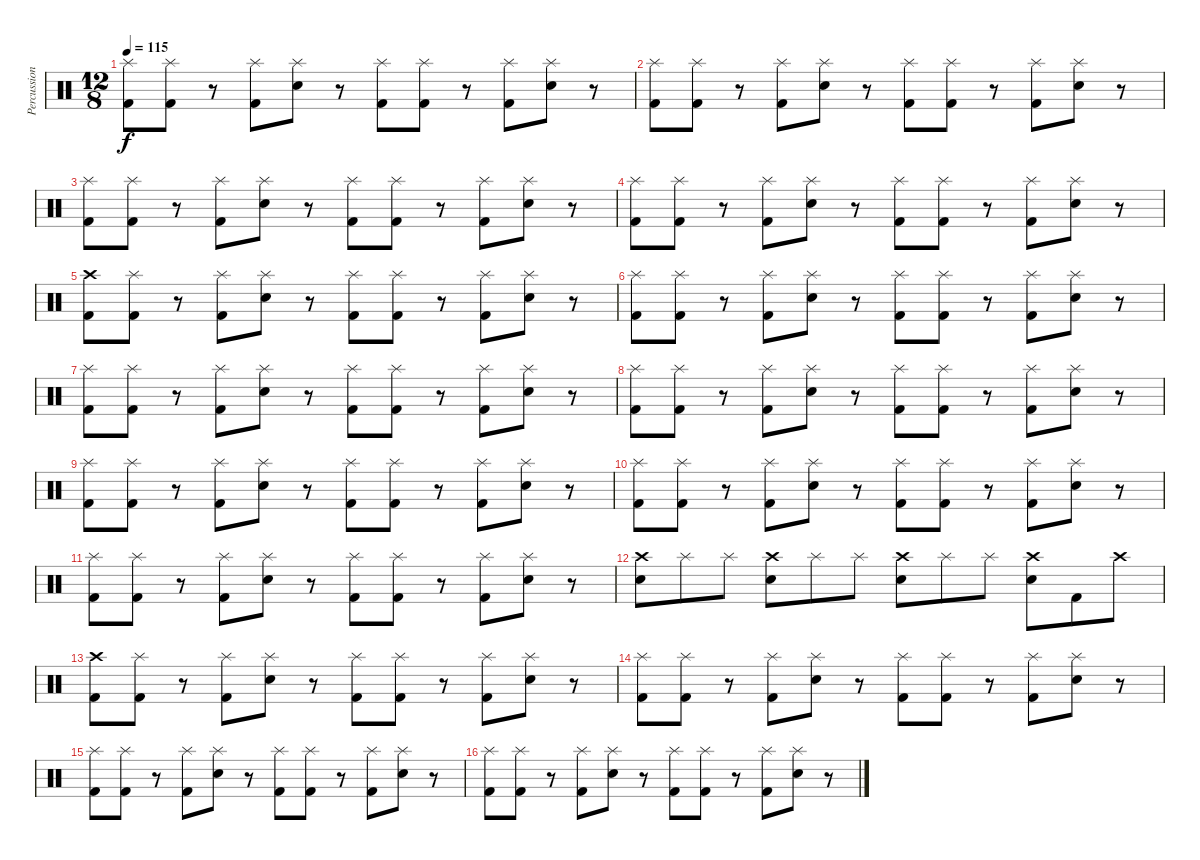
\track ("Percussions" "Percussion") {instrument percussion}
\staff {score}
\articulation defaults
\ts (12 8)
\tempo 115
\clef neutral
\ks c
("Splash (hit)" "Kick (hit) 2").8{dy f} ("Splash (hit)" "Kick (hit) 2").8 r.8 ("Splash (hit)" "Kick (hit) 2").8 ("Splash (hit)" "Snare (hit) 2").8 r.8 ("Splash (hit)" "Kick (hit) 2").8 ("Splash (hit)" "Kick (hit) 2").8 r.8 ("Splash (hit)" "Kick (hit) 2").8 ("Splash (hit)" "Snare (hit) 2").8 r.8 |
("Splash (hit)" "Kick (hit) 2").8 ("Splash (hit)" "Kick (hit) 2").8 r.8 ("Splash (hit)" "Kick (hit) 2").8 ("Splash (hit)" "Snare (hit) 2").8 r.8 ("Splash (hit)" "Kick (hit) 2").8 ("Splash (hit)" "Kick (hit) 2").8 r.8 ("Splash (hit)" "Kick (hit) 2").8 ("Splash (hit)" "Snare (hit) 2").8 r.8 |
("Splash (hit)" "Kick (hit) 2").8 ("Splash (hit)" "Kick (hit) 2").8 r.8 ("Splash (hit)" "Kick (hit) 2").8 ("Splash (hit)" "Snare (hit) 2").8 r.8 ("Splash (hit)" "Kick (hit) 2").8 ("Splash (hit)" "Kick (hit) 2").8 r.8 ("Splash (hit)" "Kick (hit) 2").8 ("Splash (hit)" "Snare (hit) 2").8 r.8 |
("Splash (hit)" "Kick (hit) 2").8 ("Splash (hit)" "Kick (hit) 2").8 r.8 ("Splash (hit)" "Kick (hit) 2").8 ("Splash (hit)" "Snare (hit) 2").8 r.8 ("Splash (hit)" "Kick (hit) 2").8 ("Splash (hit)" "Kick (hit) 2").8 r.8 ("Splash (hit)" "Kick (hit) 2").8 ("Splash (hit)" "Snare (hit) 2").8 r.8 |
("Crash high (hit)" "Kick (hit) 2").8 ("Splash (hit)" "Kick (hit) 2").8 r.8 ("Splash (hit)" "Kick (hit) 2").8 ("Splash (hit)" "Snare (hit) 2").8 r.8 ("Splash (hit)" "Kick (hit) 2").8 ("Splash (hit)" "Kick (hit) 2").8 r.8 ("Splash (hit)" "Kick (hit) 2").8 ("Splash (hit)" "Snare (hit) 2").8 r.8 |
("Splash (hit)" "Kick (hit) 2").8 ("Splash (hit)" "Kick (hit) 2").8 r.8 ("Splash (hit)" "Kick (hit) 2").8 ("Splash (hit)" "Snare (hit) 2").8 r.8 ("Splash (hit)" "Kick (hit) 2").8 ("Splash (hit)" "Kick (hit) 2").8 r.8 ("Splash (hit)" "Kick (hit) 2").8 ("Splash (hit)" "Snare (hit) 2").8 r.8 |
("Splash (hit)" "Kick (hit) 2").8 ("Splash (hit)" "Kick (hit) 2").8 r.8 ("Splash (hit)" "Kick (hit) 2").8 ("Splash (hit)" "Snare (hit) 2").8 r.8 ("Splash (hit)" "Kick (hit) 2").8 ("Splash (hit)" "Kick (hit) 2").8 r.8 ("Splash (hit)" "Kick (hit) 2").8 ("Splash (hit)" "Snare (hit) 2").8 r.8 |
("Splash (hit)" "Kick (hit) 2").8 ("Splash (hit)" "Kick (hit) 2").8 r.8 ("Splash (hit)" "Kick (hit) 2").8 ("Splash (hit)" "Snare (hit) 2").8 r.8 ("Splash (hit)" "Kick (hit) 2").8 ("Splash (hit)" "Kick (hit) 2").8 r.8 ("Splash (hit)" "Kick (hit) 2").8 ("Splash (hit)" "Snare (hit) 2").8 r.8 |
("Splash (hit)" "Kick (hit) 2").8 ("Splash (hit)" "Kick (hit) 2").8 r.8 ("Splash (hit)" "Kick (hit) 2").8 ("Splash (hit)" "Snare (hit) 2").8 r.8 ("Splash (hit)" "Kick (hit) 2").8 ("Splash (hit)" "Kick (hit) 2").8 r.8 ("Splash (hit)" "Kick (hit) 2").8 ("Splash (hit)" "Snare (hit) 2").8 r.8 |
("Splash (hit)" "Kick (hit) 2").8 ("Splash (hit)" "Kick (hit) 2").8 r.8 ("Splash (hit)" "Kick (hit) 2").8 ("Splash (hit)" "Snare (hit) 2").8 r.8 ("Splash (hit)" "Kick (hit) 2").8 ("Splash (hit)" "Kick (hit) 2").8 r.8 ("Splash (hit)" "Kick (hit) 2").8 ("Splash (hit)" "Snare (hit) 2").8 r.8 |
("Splash (hit)" "Kick (hit) 2").8 ("Splash (hit)" "Kick (hit) 2").8 r.8 ("Splash (hit)" "Kick (hit) 2").8 ("Splash (hit)" "Snare (hit) 2").8 r.8 ("Splash (hit)" "Kick (hit) 2").8 ("Splash (hit)" "Kick (hit) 2").8 r.8 ("Splash (hit)" "Kick (hit) 2").8 ("Splash (hit)" "Snare (hit) 2").8 r.8 |
("Crash high (hit)" "Snare (hit) 2").8 "Splash (hit)".8 "Splash (hit)".8 ("Crash high (hit)" "Snare (hit) 2").8 "Splash (hit)".8 "Splash (hit)".8 ("Crash high (hit)" "Snare (hit) 2").8 "Splash (hit)".8 "Splash (hit)".8 ("Crash high (hit)" "Snare (hit) 2").8 "Kick (hit) 2".8 "Crash high (hit)".8 |
("Crash high (hit)" "Kick (hit) 2").8 ("Splash (hit)" "Kick (hit) 2").8 r.8 ("Splash (hit)" "Kick (hit) 2").8 ("Splash (hit)" "Snare (hit) 2").8 r.8 ("Splash (hit)" "Kick (hit) 2").8 ("Splash (hit)" "Kick (hit) 2").8 r.8 ("Splash (hit)" "Kick (hit) 2").8 ("Splash (hit)" "Snare (hit) 2").8 r.8 |
("Splash (hit)" "Kick (hit) 2").8 ("Splash (hit)" "Kick (hit) 2").8 r.8 ("Splash (hit)" "Kick (hit) 2").8 ("Splash (hit)" "Snare (hit) 2").8 r.8 ("Splash (hit)" "Kick (hit) 2").8 ("Splash (hit)" "Kick (hit) 2").8 r.8 ("Splash (hit)" "Kick (hit) 2").8 ("Splash (hit)" "Snare (hit) 2").8 r.8 |
("Splash (hit)" "Kick (hit) 2").8 ("Splash (hit)" "Kick (hit) 2").8 r.8 ("Splash (hit)" "Kick (hit) 2").8 ("Splash (hit)" "Snare (hit) 2").8 r.8 ("Splash (hit)" "Kick (hit) 2").8 ("Splash (hit)" "Kick (hit) 2").8 r.8 ("Splash (hit)" "Kick (hit) 2").8 ("Splash (hit)" "Snare (hit) 2").8 r.8 |
("Splash (hit)" "Kick (hit) 2").8 ("Splash (hit)" "Kick (hit) 2").8 r.8 ("Splash (hit)" "Kick (hit) 2").8 ("Splash (hit)" "Snare (hit) 2").8 r.8 ("Splash (hit)" "Kick (hit) 2").8 ("Splash (hit)" "Kick (hit) 2").8 r.8 ("Splash (hit)" "Kick (hit) 2").8 ("Splash (hit)" "Snare (hit) 2").8 r.8
